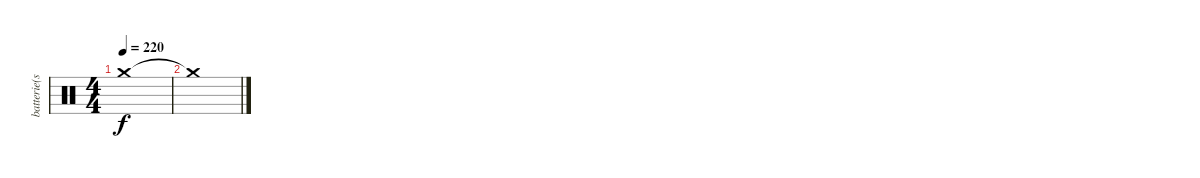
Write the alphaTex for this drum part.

\track ("batterie(scott)" "batterie(s") {instrument percussion}
\staff {score}
\articulation defaults
\ts (4 4)
\tempo 220
\clef neutral
\ks c "Crash medium (hit)".1{dy f}
|
"Crash medium (hit)"{t}.1
